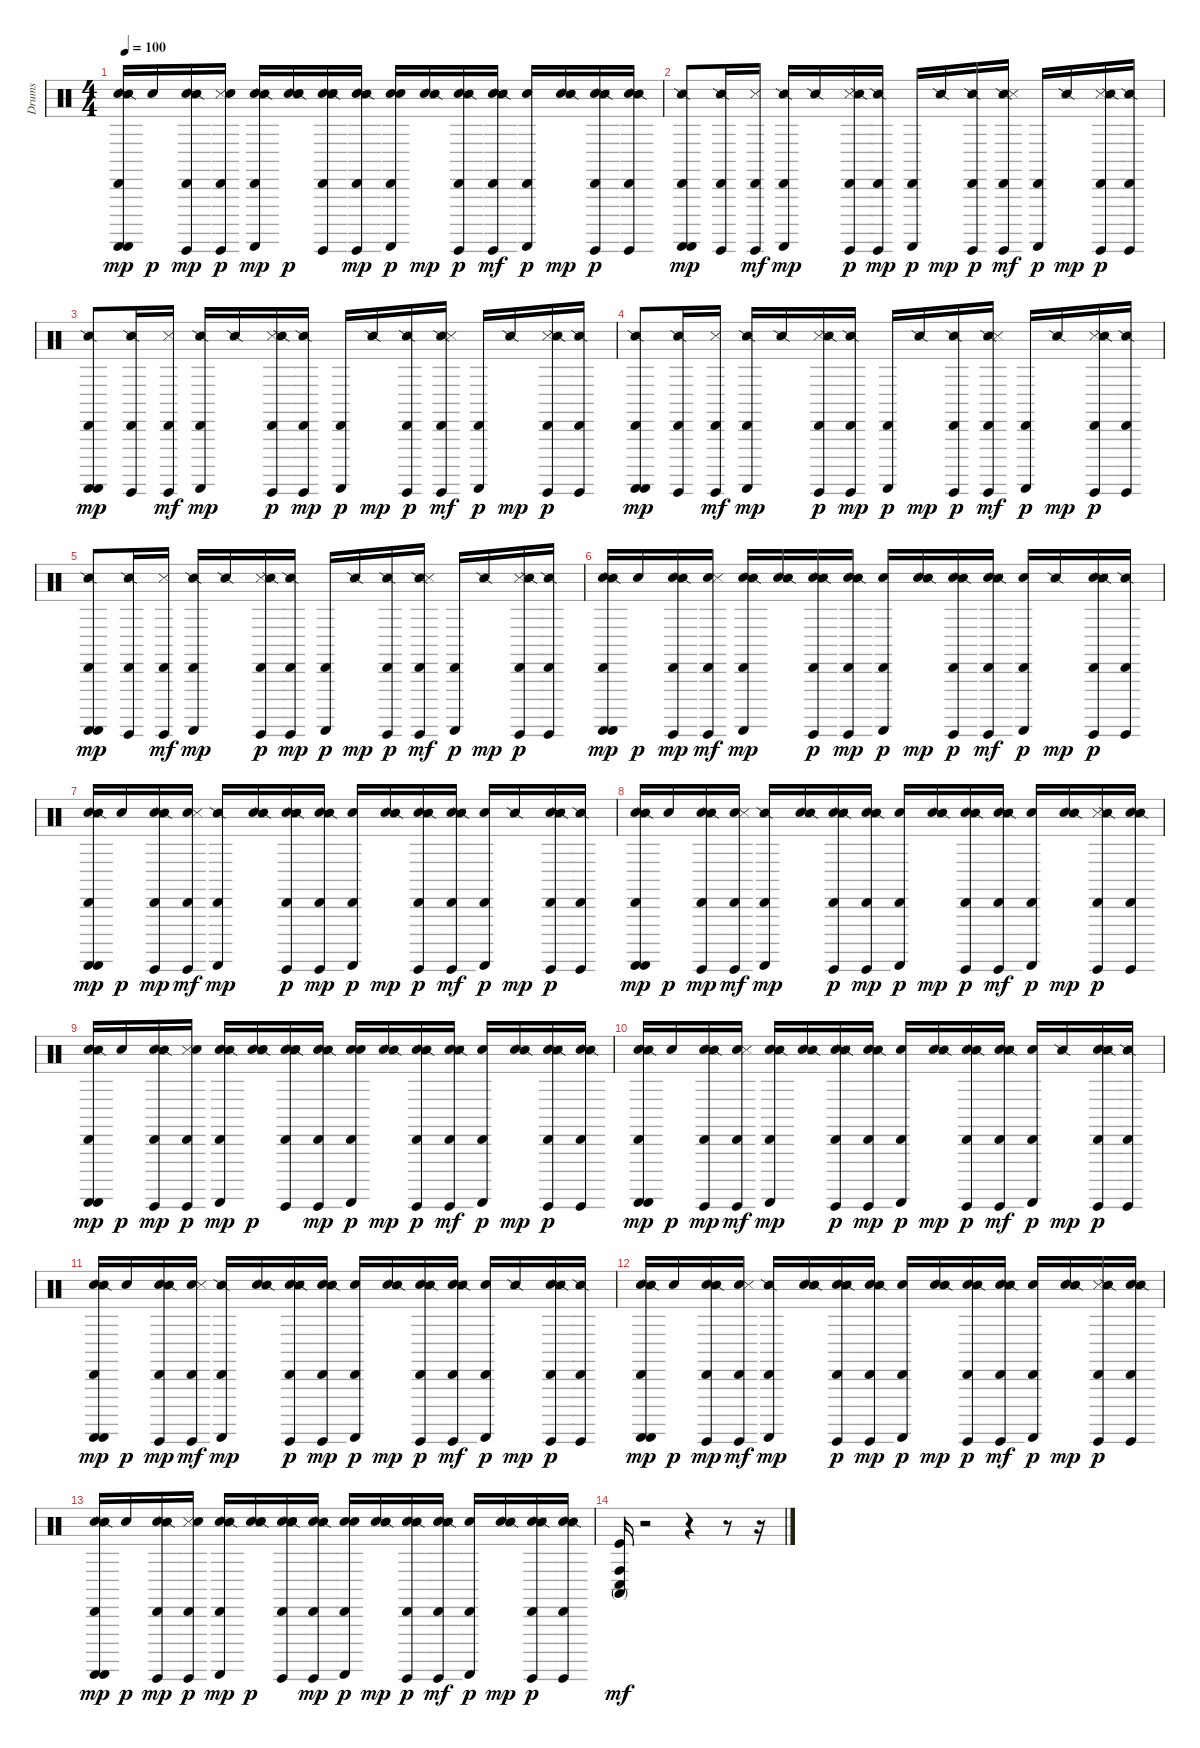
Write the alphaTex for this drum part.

\track ("Drums" "Drums") {instrument percussion}
\staff {score}
\articulation defaults
\ts (4 4)
\tempo 100
\clef neutral
\ks c
("Electric Snare (hit)" "Cabasa (hit)" "Guiro (scrap-return)" "Guiro (scrap-return)" "Snare (side stick) 2").16{dy mp} "Electric Snare (hit)".16{dy p} ("Electric Snare (hit)" "Cabasa (hit)" "Guiro (hit)" "Snare (side stick) 2").16{dy mp} ("Guiro (hit)" "Cabasa (hit)" "Metronome (hit)" "Electric Snare (hit)").16{dy p} ("Electric Snare (hit)" "Cabasa (hit)" "Guiro (scrap-return)" "Snare (side stick) 2").16{dy mp} ("Electric Snare (hit)" "Snare (side stick) 2" "Electric Snare (hit)").16{dy p} ("Electric Snare (hit)" "Electric Snare (hit)" "Metronome (hit)" "Snare (side stick) 2" "Guiro (hit)" "Cabasa (hit)").16 ("Electric Snare (hit)" "Guiro (hit)" "Cabasa (hit)" "Snare (side stick) 2").16{dy mp} ("Electric Snare (hit)" "Cabasa (hit)" "Guiro (scrap-return)" "Electric Snare (hit)").16{dy p} ("Electric Snare (hit)" "Snare (side stick) 2").16{dy mp} ("Electric Snare (hit)" "Snare (side stick) 2" "Guiro (hit)" "Cabasa (hit)").16{dy p} ("Electric Snare (hit)" "Guiro (hit)" "Snare (side stick) 2" "Cabasa (hit)" "Metronome (hit)").16{dy mf} ("Electric Snare (hit)" "Cabasa (hit)" "Guiro (scrap-return)").16{dy p} ("Electric Snare (hit)" "Snare (side stick) 2").16{dy mp} ("Electric Snare (hit)" "Metronome (hit)" "Guiro (hit)" "Snare (side stick) 2" "Cabasa (hit)").16{dy p} ("Electric Snare (hit)" "Guiro (hit)" "Snare (side stick) 2" "Cabasa (hit)").16 |
("Cabasa (hit)" "Guiro (scrap-return)" "Guiro (scrap-return)" "Snare (side stick) 2").8{dy mp} ("Cabasa (hit)" "Guiro (hit)" "Snare (side stick) 2").16 ("Guiro (hit)" "Cabasa (hit)" "Metronome (hit)").16{dy mf} ("Cabasa (hit)" "Guiro (scrap-return)" "Snare (side stick) 2").16{dy mp} "Snare (side stick) 2".16 ("Metronome (hit)" "Snare (side stick) 2" "Guiro (hit)" "Cabasa (hit)").16{dy p} ("Guiro (hit)" "Cabasa (hit)" "Snare (side stick) 2").16{dy mp} ("Cabasa (hit)" "Guiro (scrap-return)").16{dy p} "Snare (side stick) 2".16{dy mp} ("Snare (side stick) 2" "Guiro (hit)" "Cabasa (hit)").16{dy p} ("Guiro (hit)" "Snare (side stick) 2" "Cabasa (hit)" "Metronome (hit)").16{dy mf} ("Cabasa (hit)" "Guiro (scrap-return)").16{dy p} "Snare (side stick) 2".16{dy mp} ("Metronome (hit)" "Guiro (hit)" "Snare (side stick) 2" "Cabasa (hit)").16{dy p} ("Guiro (hit)" "Snare (side stick) 2" "Cabasa (hit)").16 |
("Cabasa (hit)" "Guiro (scrap-return)" "Guiro (scrap-return)" "Snare (side stick) 2").8{dy mp} ("Cabasa (hit)" "Guiro (hit)" "Snare (side stick) 2").16 ("Guiro (hit)" "Cabasa (hit)" "Metronome (hit)").16{dy mf} ("Cabasa (hit)" "Guiro (scrap-return)" "Snare (side stick) 2").16{dy mp} "Snare (side stick) 2".16 ("Metronome (hit)" "Snare (side stick) 2" "Guiro (hit)" "Cabasa (hit)").16{dy p} ("Guiro (hit)" "Cabasa (hit)" "Snare (side stick) 2").16{dy mp} ("Cabasa (hit)" "Guiro (scrap-return)").16{dy p} "Snare (side stick) 2".16{dy mp} ("Snare (side stick) 2" "Guiro (hit)" "Cabasa (hit)").16{dy p} ("Guiro (hit)" "Snare (side stick) 2" "Cabasa (hit)" "Metronome (hit)").16{dy mf} ("Cabasa (hit)" "Guiro (scrap-return)").16{dy p} "Snare (side stick) 2".16{dy mp} ("Metronome (hit)" "Guiro (hit)" "Snare (side stick) 2" "Cabasa (hit)").16{dy p} ("Guiro (hit)" "Snare (side stick) 2" "Cabasa (hit)").16 |
("Cabasa (hit)" "Guiro (scrap-return)" "Guiro (scrap-return)" "Snare (side stick) 2").8{dy mp} ("Cabasa (hit)" "Guiro (hit)" "Snare (side stick) 2").16 ("Guiro (hit)" "Cabasa (hit)" "Metronome (hit)").16{dy mf} ("Cabasa (hit)" "Guiro (scrap-return)" "Snare (side stick) 2").16{dy mp} "Snare (side stick) 2".16 ("Metronome (hit)" "Snare (side stick) 2" "Guiro (hit)" "Cabasa (hit)").16{dy p} ("Guiro (hit)" "Cabasa (hit)" "Snare (side stick) 2").16{dy mp} ("Cabasa (hit)" "Guiro (scrap-return)").16{dy p} "Snare (side stick) 2".16{dy mp} ("Snare (side stick) 2" "Guiro (hit)" "Cabasa (hit)").16{dy p} ("Guiro (hit)" "Snare (side stick) 2" "Cabasa (hit)" "Metronome (hit)").16{dy mf} ("Cabasa (hit)" "Guiro (scrap-return)").16{dy p} "Snare (side stick) 2".16{dy mp} ("Metronome (hit)" "Guiro (hit)" "Snare (side stick) 2" "Cabasa (hit)").16{dy p} ("Guiro (hit)" "Snare (side stick) 2" "Cabasa (hit)").16 |
("Cabasa (hit)" "Guiro (scrap-return)" "Guiro (scrap-return)" "Snare (side stick) 2").8{dy mp} ("Cabasa (hit)" "Guiro (hit)" "Snare (side stick) 2").16 ("Guiro (hit)" "Cabasa (hit)" "Metronome (hit)").16{dy mf} ("Cabasa (hit)" "Guiro (scrap-return)" "Snare (side stick) 2").16{dy mp} "Snare (side stick) 2".16 ("Metronome (hit)" "Snare (side stick) 2" "Guiro (hit)" "Cabasa (hit)").16{dy p} ("Guiro (hit)" "Cabasa (hit)" "Snare (side stick) 2").16{dy mp} ("Cabasa (hit)" "Guiro (scrap-return)").16{dy p} "Snare (side stick) 2".16{dy mp} ("Snare (side stick) 2" "Guiro (hit)" "Cabasa (hit)").16{dy p} ("Guiro (hit)" "Snare (side stick) 2" "Cabasa (hit)" "Metronome (hit)").16{dy mf} ("Cabasa (hit)" "Guiro (scrap-return)").16{dy p} "Snare (side stick) 2".16{dy mp} ("Metronome (hit)" "Guiro (hit)" "Snare (side stick) 2" "Cabasa (hit)").16{dy p} ("Guiro (hit)" "Snare (side stick) 2" "Cabasa (hit)").16 |
("Electric Snare (hit)" "Cabasa (hit)" "Guiro (scrap-return)" "Guiro (scrap-return)" "Snare (side stick) 2").16{dy mp} "Electric Snare (hit)".16{dy p} ("Electric Snare (hit)" "Cabasa (hit)" "Guiro (hit)" "Snare (side stick) 2").16{dy mp} ("Electric Snare (hit)" "Guiro (hit)" "Cabasa (hit)" "Metronome (hit)").16{dy mf} ("Electric Snare (hit)" "Cabasa (hit)" "Guiro (scrap-return)" "Snare (side stick) 2").16{dy mp} ("Electric Snare (hit)" "Snare (side stick) 2").16 ("Electric Snare (hit)" "Metronome (hit)" "Snare (side stick) 2" "Guiro (hit)" "Cabasa (hit)").16{dy p} ("Electric Snare (hit)" "Guiro (hit)" "Cabasa (hit)" "Snare (side stick) 2").16{dy mp} ("Electric Snare (hit)" "Cabasa (hit)" "Guiro (scrap-return)").16{dy p} ("Electric Snare (hit)" "Snare (side stick) 2").16{dy mp} ("Electric Snare (hit)" "Snare (side stick) 2" "Guiro (hit)" "Cabasa (hit)").16{dy p} ("Electric Snare (hit)" "Guiro (hit)" "Snare (side stick) 2" "Cabasa (hit)" "Metronome (hit)").16{dy mf} ("Electric Snare (hit)" "Cabasa (hit)" "Guiro (scrap-return)").16{dy p} "Snare (side stick) 2".16{dy mp} ("Electric Snare (hit)" "Metronome (hit)" "Guiro (hit)" "Snare (side stick) 2" "Cabasa (hit)").16{dy p} ("Guiro (hit)" "Snare (side stick) 2" "Cabasa (hit)").16 |
("Electric Snare (hit)" "Cabasa (hit)" "Guiro (scrap-return)" "Guiro (scrap-return)" "Snare (side stick) 2").16{dy mp} "Electric Snare (hit)".16{dy p} ("Electric Snare (hit)" "Cabasa (hit)" "Guiro (hit)" "Snare (side stick) 2").16{dy mp} ("Electric Snare (hit)" "Guiro (hit)" "Cabasa (hit)" "Metronome (hit)").16{dy mf} ("Cabasa (hit)" "Guiro (scrap-return)" "Snare (side stick) 2").16{dy mp} ("Electric Snare (hit)" "Snare (side stick) 2").16 ("Electric Snare (hit)" "Metronome (hit)" "Snare (side stick) 2" "Guiro (hit)" "Cabasa (hit)").16{dy p} ("Electric Snare (hit)" "Guiro (hit)" "Cabasa (hit)" "Snare (side stick) 2").16{dy mp} ("Electric Snare (hit)" "Cabasa (hit)" "Guiro (scrap-return)").16{dy p} ("Electric Snare (hit)" "Snare (side stick) 2").16{dy mp} ("Electric Snare (hit)" "Snare (side stick) 2" "Guiro (hit)" "Cabasa (hit)").16{dy p} ("Electric Snare (hit)" "Guiro (hit)" "Snare (side stick) 2" "Cabasa (hit)" "Metronome (hit)").16{dy mf} ("Electric Snare (hit)" "Cabasa (hit)" "Guiro (scrap-return)").16{dy p} "Snare (side stick) 2".16{dy mp} ("Electric Snare (hit)" "Metronome (hit)" "Guiro (hit)" "Snare (side stick) 2" "Cabasa (hit)").16{dy p} ("Guiro (hit)" "Snare (side stick) 2" "Cabasa (hit)").16 |
("Electric Snare (hit)" "Cabasa (hit)" "Guiro (scrap-return)" "Guiro (scrap-return)" "Snare (side stick) 2").16{dy mp} "Electric Snare (hit)".16{dy p} ("Electric Snare (hit)" "Cabasa (hit)" "Guiro (hit)" "Snare (side stick) 2").16{dy mp} ("Electric Snare (hit)" "Guiro (hit)" "Cabasa (hit)" "Metronome (hit)").16{dy mf} ("Cabasa (hit)" "Guiro (scrap-return)" "Snare (side stick) 2").16{dy mp} ("Electric Snare (hit)" "Snare (side stick) 2").16 ("Electric Snare (hit)" "Metronome (hit)" "Snare (side stick) 2" "Guiro (hit)" "Cabasa (hit)").16{dy p} ("Electric Snare (hit)" "Guiro (hit)" "Cabasa (hit)" "Snare (side stick) 2").16{dy mp} ("Electric Snare (hit)" "Cabasa (hit)" "Guiro (scrap-return)").16{dy p} ("Electric Snare (hit)" "Snare (side stick) 2").16{dy mp} ("Electric Snare (hit)" "Snare (side stick) 2" "Guiro (hit)" "Cabasa (hit)").16{dy p} ("Electric Snare (hit)" "Guiro (hit)" "Snare (side stick) 2" "Cabasa (hit)" "Metronome (hit)").16{dy mf} ("Electric Snare (hit)" "Cabasa (hit)" "Guiro (scrap-return)").16{dy p} ("Electric Snare (hit)" "Snare (side stick) 2").16{dy mp} ("Metronome (hit)" "Guiro (hit)" "Snare (side stick) 2" "Cabasa (hit)").16{dy p} ("Electric Snare (hit)" "Guiro (hit)" "Snare (side stick) 2" "Cabasa (hit)").16 |
("Electric Snare (hit)" "Cabasa (hit)" "Guiro (scrap-return)" "Guiro (scrap-return)" "Snare (side stick) 2").16{dy mp} "Electric Snare (hit)".16{dy p} ("Electric Snare (hit)" "Cabasa (hit)" "Guiro (hit)" "Snare (side stick) 2").16{dy mp} ("Guiro (hit)" "Cabasa (hit)" "Metronome (hit)" "Electric Snare (hit)").16{dy p} ("Electric Snare (hit)" "Cabasa (hit)" "Guiro (scrap-return)" "Snare (side stick) 2").16{dy mp} ("Electric Snare (hit)" "Snare (side stick) 2" "Electric Snare (hit)").16{dy p} ("Electric Snare (hit)" "Electric Snare (hit)" "Metronome (hit)" "Snare (side stick) 2" "Guiro (hit)" "Cabasa (hit)").16 ("Electric Snare (hit)" "Guiro (hit)" "Cabasa (hit)" "Snare (side stick) 2").16{dy mp} ("Electric Snare (hit)" "Cabasa (hit)" "Guiro (scrap-return)" "Electric Snare (hit)").16{dy p} ("Electric Snare (hit)" "Snare (side stick) 2").16{dy mp} ("Electric Snare (hit)" "Snare (side stick) 2" "Guiro (hit)" "Cabasa (hit)").16{dy p} ("Electric Snare (hit)" "Guiro (hit)" "Snare (side stick) 2" "Cabasa (hit)" "Metronome (hit)").16{dy mf} ("Electric Snare (hit)" "Cabasa (hit)" "Guiro (scrap-return)").16{dy p} ("Electric Snare (hit)" "Snare (side stick) 2").16{dy mp} ("Electric Snare (hit)" "Metronome (hit)" "Guiro (hit)" "Snare (side stick) 2" "Cabasa (hit)").16{dy p} ("Electric Snare (hit)" "Guiro (hit)" "Snare (side stick) 2" "Cabasa (hit)").16 |
("Electric Snare (hit)" "Cabasa (hit)" "Guiro (scrap-return)" "Guiro (scrap-return)" "Snare (side stick) 2").16{dy mp} "Electric Snare (hit)".16{dy p} ("Electric Snare (hit)" "Cabasa (hit)" "Guiro (hit)" "Snare (side stick) 2").16{dy mp} ("Electric Snare (hit)" "Guiro (hit)" "Cabasa (hit)" "Metronome (hit)").16{dy mf} ("Electric Snare (hit)" "Cabasa (hit)" "Guiro (scrap-return)" "Snare (side stick) 2").16{dy mp} ("Electric Snare (hit)" "Snare (side stick) 2").16 ("Electric Snare (hit)" "Metronome (hit)" "Snare (side stick) 2" "Guiro (hit)" "Cabasa (hit)").16{dy p} ("Electric Snare (hit)" "Guiro (hit)" "Cabasa (hit)" "Snare (side stick) 2").16{dy mp} ("Electric Snare (hit)" "Cabasa (hit)" "Guiro (scrap-return)").16{dy p} ("Electric Snare (hit)" "Snare (side stick) 2").16{dy mp} ("Electric Snare (hit)" "Snare (side stick) 2" "Guiro (hit)" "Cabasa (hit)").16{dy p} ("Electric Snare (hit)" "Guiro (hit)" "Snare (side stick) 2" "Cabasa (hit)" "Metronome (hit)").16{dy mf} ("Electric Snare (hit)" "Cabasa (hit)" "Guiro (scrap-return)").16{dy p} "Snare (side stick) 2".16{dy mp} ("Electric Snare (hit)" "Metronome (hit)" "Guiro (hit)" "Snare (side stick) 2" "Cabasa (hit)").16{dy p} ("Guiro (hit)" "Snare (side stick) 2" "Cabasa (hit)").16 |
("Electric Snare (hit)" "Cabasa (hit)" "Guiro (scrap-return)" "Guiro (scrap-return)" "Snare (side stick) 2").16{dy mp} "Electric Snare (hit)".16{dy p} ("Electric Snare (hit)" "Cabasa (hit)" "Guiro (hit)" "Snare (side stick) 2").16{dy mp} ("Electric Snare (hit)" "Guiro (hit)" "Cabasa (hit)" "Metronome (hit)").16{dy mf} ("Cabasa (hit)" "Guiro (scrap-return)" "Snare (side stick) 2").16{dy mp} ("Electric Snare (hit)" "Snare (side stick) 2").16 ("Electric Snare (hit)" "Metronome (hit)" "Snare (side stick) 2" "Guiro (hit)" "Cabasa (hit)").16{dy p} ("Electric Snare (hit)" "Guiro (hit)" "Cabasa (hit)" "Snare (side stick) 2").16{dy mp} ("Electric Snare (hit)" "Cabasa (hit)" "Guiro (scrap-return)").16{dy p} ("Electric Snare (hit)" "Snare (side stick) 2").16{dy mp} ("Electric Snare (hit)" "Snare (side stick) 2" "Guiro (hit)" "Cabasa (hit)").16{dy p} ("Electric Snare (hit)" "Guiro (hit)" "Snare (side stick) 2" "Cabasa (hit)" "Metronome (hit)").16{dy mf} ("Electric Snare (hit)" "Cabasa (hit)" "Guiro (scrap-return)").16{dy p} "Snare (side stick) 2".16{dy mp} ("Electric Snare (hit)" "Metronome (hit)" "Guiro (hit)" "Snare (side stick) 2" "Cabasa (hit)").16{dy p} ("Guiro (hit)" "Snare (side stick) 2" "Cabasa (hit)").16 |
("Electric Snare (hit)" "Cabasa (hit)" "Guiro (scrap-return)" "Guiro (scrap-return)" "Snare (side stick) 2").16{dy mp} "Electric Snare (hit)".16{dy p} ("Electric Snare (hit)" "Cabasa (hit)" "Guiro (hit)" "Snare (side stick) 2").16{dy mp} ("Electric Snare (hit)" "Guiro (hit)" "Cabasa (hit)" "Metronome (hit)").16{dy mf} ("Cabasa (hit)" "Guiro (scrap-return)" "Snare (side stick) 2").16{dy mp} ("Electric Snare (hit)" "Snare (side stick) 2").16 ("Electric Snare (hit)" "Metronome (hit)" "Snare (side stick) 2" "Guiro (hit)" "Cabasa (hit)").16{dy p} ("Electric Snare (hit)" "Guiro (hit)" "Cabasa (hit)" "Snare (side stick) 2").16{dy mp} ("Electric Snare (hit)" "Cabasa (hit)" "Guiro (scrap-return)").16{dy p} ("Electric Snare (hit)" "Snare (side stick) 2").16{dy mp} ("Electric Snare (hit)" "Snare (side stick) 2" "Guiro (hit)" "Cabasa (hit)").16{dy p} ("Electric Snare (hit)" "Guiro (hit)" "Snare (side stick) 2" "Cabasa (hit)" "Metronome (hit)").16{dy mf} ("Electric Snare (hit)" "Cabasa (hit)" "Guiro (scrap-return)").16{dy p} ("Electric Snare (hit)" "Snare (side stick) 2").16{dy mp} ("Metronome (hit)" "Guiro (hit)" "Snare (side stick) 2" "Cabasa (hit)").16{dy p} ("Electric Snare (hit)" "Guiro (hit)" "Snare (side stick) 2" "Cabasa (hit)").16 |
("Electric Snare (hit)" "Cabasa (hit)" "Guiro (scrap-return)" "Guiro (scrap-return)" "Snare (side stick) 2").16{dy mp} "Electric Snare (hit)".16{dy p} ("Electric Snare (hit)" "Cabasa (hit)" "Guiro (hit)" "Snare (side stick) 2").16{dy mp} ("Guiro (hit)" "Cabasa (hit)" "Metronome (hit)" "Electric Snare (hit)").16{dy p} ("Electric Snare (hit)" "Cabasa (hit)" "Guiro (scrap-return)" "Snare (side stick) 2").16{dy mp} ("Electric Snare (hit)" "Snare (side stick) 2" "Electric Snare (hit)").16{dy p} ("Electric Snare (hit)" "Electric Snare (hit)" "Metronome (hit)" "Snare (side stick) 2" "Guiro (hit)" "Cabasa (hit)").16 ("Electric Snare (hit)" "Guiro (hit)" "Cabasa (hit)" "Snare (side stick) 2").16{dy mp} ("Electric Snare (hit)" "Cabasa (hit)" "Guiro (scrap-return)" "Electric Snare (hit)").16{dy p} ("Electric Snare (hit)" "Snare (side stick) 2").16{dy mp} ("Electric Snare (hit)" "Snare (side stick) 2" "Guiro (hit)" "Cabasa (hit)").16{dy p} ("Electric Snare (hit)" "Guiro (hit)" "Snare (side stick) 2" "Cabasa (hit)" "Metronome (hit)").16{dy mf} ("Electric Snare (hit)" "Cabasa (hit)" "Guiro (scrap-return)").16{dy p} ("Electric Snare (hit)" "Snare (side stick) 2").16{dy mp} ("Electric Snare (hit)" "Metronome (hit)" "Guiro (hit)" "Snare (side stick) 2" "Cabasa (hit)").16{dy p} ("Electric Snare (hit)" "Guiro (hit)" "Snare (side stick) 2" "Cabasa (hit)").16 |
("Kick (hit)" "Conga high (mute)" "Conga high (hit)" "Conga low (hit)").16{dy mf} r.2 r.4 r.8 r.16
